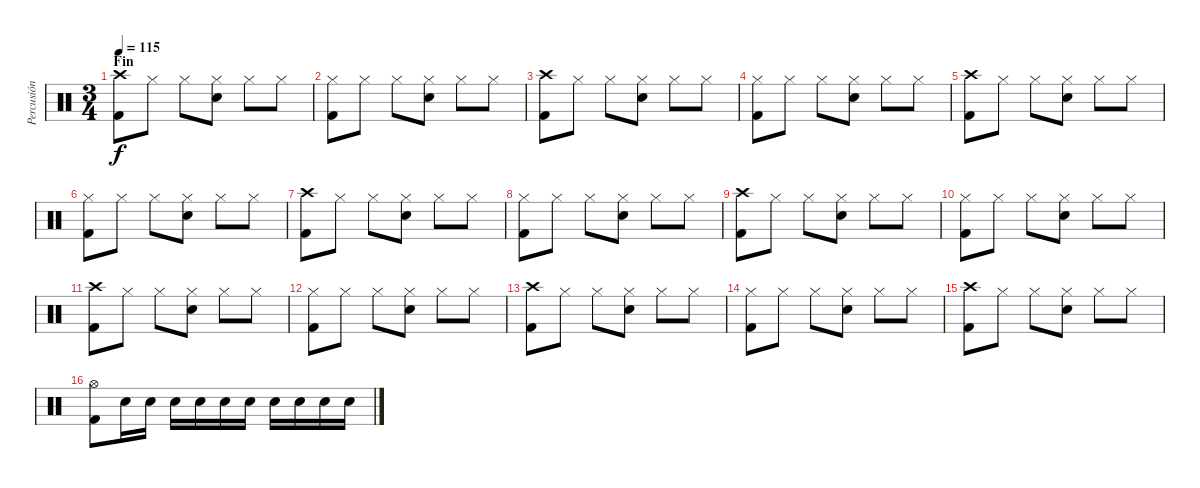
\track ("Percusión" "Percusión") {instrument percussion}
\staff {score}
\articulation defaults
\ts (3 4)
\section ("" "Fin")
\tempo 115
\clef neutral
\ks c
("Crash high (hit)" "Kick (hit) 2").8{dy f} "Hi-Hat (closed)".8 "Hi-Hat (closed)".8 ("Hi-Hat (closed)" "Electric Snare (hit)").8 "Hi-Hat (closed)".8 "Hi-Hat (closed)".8 |
("Hi-Hat (closed)" "Kick (hit) 2").8 "Hi-Hat (closed)".8 "Hi-Hat (closed)".8 ("Hi-Hat (closed)" "Electric Snare (hit)").8 "Hi-Hat (closed)".8 "Hi-Hat (closed)".8 |
("Crash high (hit)" "Kick (hit) 2").8 "Hi-Hat (closed)".8 "Hi-Hat (closed)".8 ("Hi-Hat (closed)" "Electric Snare (hit)").8 "Hi-Hat (closed)".8 "Hi-Hat (closed)".8 |
("Hi-Hat (closed)" "Kick (hit) 2").8 "Hi-Hat (closed)".8 "Hi-Hat (closed)".8 ("Hi-Hat (closed)" "Electric Snare (hit)").8 "Hi-Hat (closed)".8 "Hi-Hat (closed)".8 |
("Crash high (hit)" "Kick (hit) 2").8 "Hi-Hat (closed)".8 "Hi-Hat (closed)".8 ("Hi-Hat (closed)" "Electric Snare (hit)").8 "Hi-Hat (closed)".8 "Hi-Hat (closed)".8 |
("Hi-Hat (closed)" "Kick (hit) 2").8 "Hi-Hat (closed)".8 "Hi-Hat (closed)".8 ("Hi-Hat (closed)" "Electric Snare (hit)").8 "Hi-Hat (closed)".8 "Hi-Hat (closed)".8 |
("Crash high (hit)" "Kick (hit) 2").8 "Hi-Hat (closed)".8 "Hi-Hat (closed)".8 ("Hi-Hat (closed)" "Electric Snare (hit)").8 "Hi-Hat (closed)".8 "Hi-Hat (closed)".8 |
("Hi-Hat (closed)" "Kick (hit) 2").8 "Hi-Hat (closed)".8 "Hi-Hat (closed)".8 ("Hi-Hat (closed)" "Electric Snare (hit)").8 "Hi-Hat (closed)".8 "Hi-Hat (closed)".8 |
("Crash high (hit)" "Kick (hit) 2").8 "Hi-Hat (closed)".8 "Hi-Hat (closed)".8 ("Hi-Hat (closed)" "Electric Snare (hit)").8 "Hi-Hat (closed)".8 "Hi-Hat (closed)".8 |
("Hi-Hat (closed)" "Kick (hit) 2").8 "Hi-Hat (closed)".8 "Hi-Hat (closed)".8 ("Hi-Hat (closed)" "Electric Snare (hit)").8 "Hi-Hat (closed)".8 "Hi-Hat (closed)".8 |
("Crash high (hit)" "Kick (hit) 2").8 "Hi-Hat (closed)".8 "Hi-Hat (closed)".8 ("Hi-Hat (closed)" "Electric Snare (hit)").8 "Hi-Hat (closed)".8 "Hi-Hat (closed)".8 |
("Hi-Hat (closed)" "Kick (hit) 2").8 "Hi-Hat (closed)".8 "Hi-Hat (closed)".8 ("Hi-Hat (closed)" "Electric Snare (hit)").8 "Hi-Hat (closed)".8 "Hi-Hat (closed)".8 |
("Crash high (hit)" "Kick (hit) 2").8 "Hi-Hat (closed)".8 "Hi-Hat (closed)".8 ("Hi-Hat (closed)" "Electric Snare (hit)").8 "Hi-Hat (closed)".8 "Hi-Hat (closed)".8 |
("Hi-Hat (closed)" "Kick (hit) 2").8 "Hi-Hat (closed)".8 "Hi-Hat (closed)".8 ("Hi-Hat (closed)" "Electric Snare (hit)").8 "Hi-Hat (closed)".8 "Hi-Hat (closed)".8 |
("Crash high (hit)" "Kick (hit) 2").8 "Hi-Hat (closed)".8 "Hi-Hat (closed)".8 ("Hi-Hat (closed)" "Electric Snare (hit)").8 "Hi-Hat (closed)".8 "Hi-Hat (closed)".8 |
("Hi-Hat (open)" "Kick (hit) 2").8 "Electric Snare (hit)".16 "Electric Snare (hit)".16 "Electric Snare (hit)".16 "Electric Snare (hit)".16 "Electric Snare (hit)".16 "Electric Snare (hit)".16 "Electric Snare (hit)".16 "Electric Snare (hit)".16 "Electric Snare (hit)".16 "Electric Snare (hit)".16
